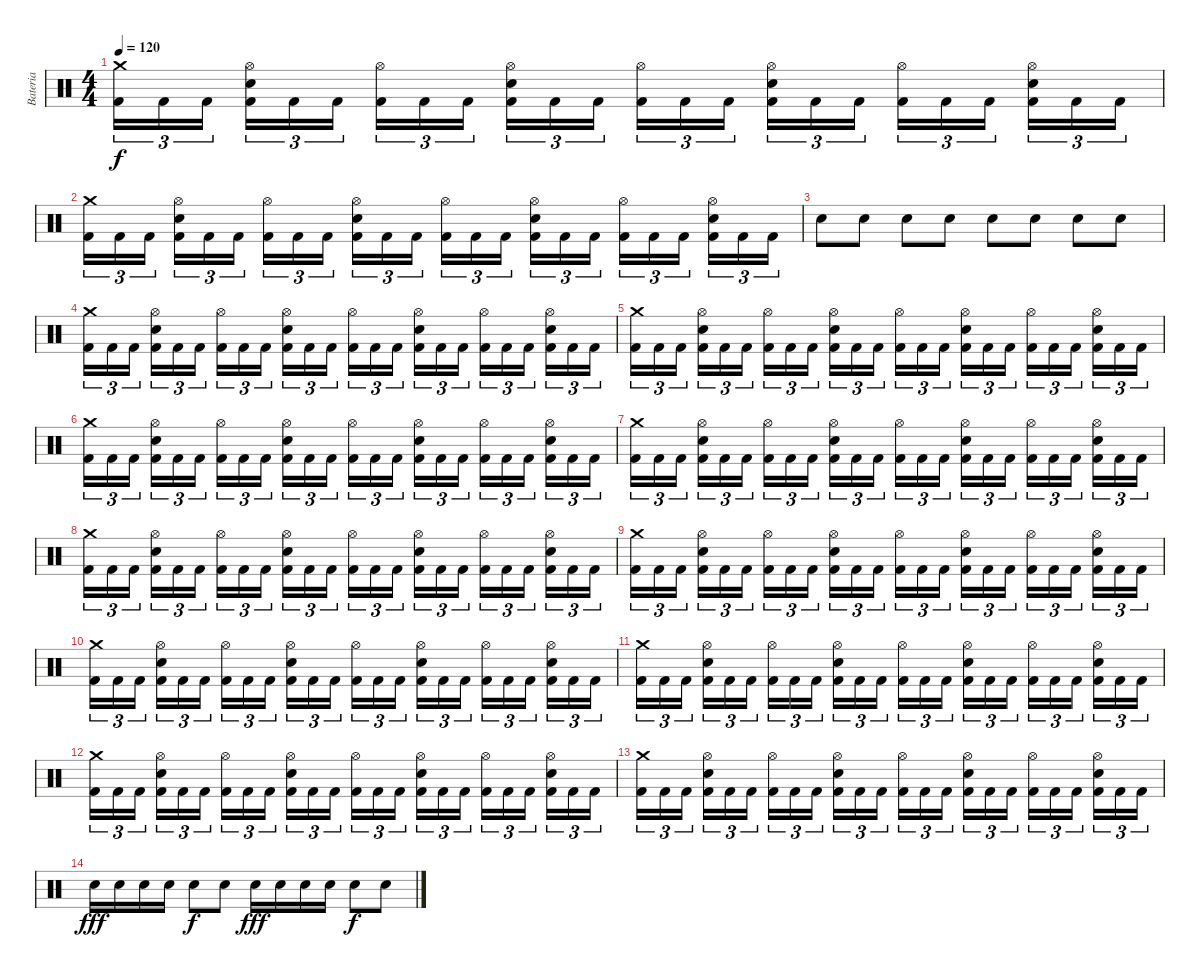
\track ("Bateria" "Bateria") {instrument percussion}
\staff {score}
\articulation defaults
\ts (4 4)
\tempo 120
\clef neutral
\ks c
("Kick (hit) 2" "Crash medium (hit)").16{tu (3 2) dy f} "Kick (hit) 2".16{tu (3 2)} "Kick (hit) 2".16{tu (3 2)} ("Kick (hit) 2" "Snare (hit) 2" "Hi-Hat (open)").16{tu (3 2)} "Kick (hit) 2".16{tu (3 2)} "Kick (hit) 2".16{tu (3 2)} ("Kick (hit) 2" "Hi-Hat (open)").16{tu (3 2)} "Kick (hit) 2".16{tu (3 2)} "Kick (hit) 2".16{tu (3 2)} ("Kick (hit) 2" "Snare (hit) 2" "Hi-Hat (open)").16{tu (3 2)} "Kick (hit) 2".16{tu (3 2)} "Kick (hit) 2".16{tu (3 2)} ("Kick (hit) 2" "Hi-Hat (open)").16{tu (3 2)} "Kick (hit) 2".16{tu (3 2)} "Kick (hit) 2".16{tu (3 2)} ("Kick (hit) 2" "Snare (hit) 2" "Hi-Hat (open)").16{tu (3 2)} "Kick (hit) 2".16{tu (3 2)} "Kick (hit) 2".16{tu (3 2)} ("Kick (hit) 2" "Hi-Hat (open)").16{tu (3 2)} "Kick (hit) 2".16{tu (3 2)} "Kick (hit) 2".16{tu (3 2)} ("Kick (hit) 2" "Snare (hit) 2" "Hi-Hat (open)").16{tu (3 2)} "Kick (hit) 2".16{tu (3 2)} "Kick (hit) 2".16{tu (3 2)} |
("Kick (hit) 2" "Crash medium (hit)").16{tu (3 2)} "Kick (hit) 2".16{tu (3 2)} "Kick (hit) 2".16{tu (3 2)} ("Kick (hit) 2" "Snare (hit) 2" "Hi-Hat (open)").16{tu (3 2)} "Kick (hit) 2".16{tu (3 2)} "Kick (hit) 2".16{tu (3 2)} ("Kick (hit) 2" "Hi-Hat (open)").16{tu (3 2)} "Kick (hit) 2".16{tu (3 2)} "Kick (hit) 2".16{tu (3 2)} ("Kick (hit) 2" "Snare (hit) 2" "Hi-Hat (open)").16{tu (3 2)} "Kick (hit) 2".16{tu (3 2)} "Kick (hit) 2".16{tu (3 2)} ("Kick (hit) 2" "Hi-Hat (open)").16{tu (3 2)} "Kick (hit) 2".16{tu (3 2)} "Kick (hit) 2".16{tu (3 2)} ("Kick (hit) 2" "Snare (hit) 2" "Hi-Hat (open)").16{tu (3 2)} "Kick (hit) 2".16{tu (3 2)} "Kick (hit) 2".16{tu (3 2)} ("Kick (hit) 2" "Hi-Hat (open)").16{tu (3 2)} "Kick (hit) 2".16{tu (3 2)} "Kick (hit) 2".16{tu (3 2)} ("Kick (hit) 2" "Snare (hit) 2" "Hi-Hat (open)").16{tu (3 2)} "Kick (hit) 2".16{tu (3 2)} "Kick (hit) 2".16{tu (3 2)} |
"Electric Snare (hit)".8{volume 14} "Electric Snare (hit)".8 "Electric Snare (hit)".8 "Electric Snare (hit)".8 "Electric Snare (hit)".8 "Electric Snare (hit)".8 "Electric Snare (hit)".8 "Electric Snare (hit)".8 |
("Kick (hit) 2" "Crash medium (hit)").16{tu (3 2)} "Kick (hit) 2".16{tu (3 2)} "Kick (hit) 2".16{tu (3 2)} ("Kick (hit) 2" "Snare (hit) 2" "Hi-Hat (open)").16{tu (3 2)} "Kick (hit) 2".16{tu (3 2)} "Kick (hit) 2".16{tu (3 2)} ("Kick (hit) 2" "Hi-Hat (open)").16{tu (3 2)} "Kick (hit) 2".16{tu (3 2)} "Kick (hit) 2".16{tu (3 2)} ("Kick (hit) 2" "Snare (hit) 2" "Hi-Hat (open)").16{tu (3 2)} "Kick (hit) 2".16{tu (3 2)} "Kick (hit) 2".16{tu (3 2)} ("Kick (hit) 2" "Hi-Hat (open)").16{tu (3 2)} "Kick (hit) 2".16{tu (3 2)} "Kick (hit) 2".16{tu (3 2)} ("Kick (hit) 2" "Snare (hit) 2" "Hi-Hat (open)").16{tu (3 2)} "Kick (hit) 2".16{tu (3 2)} "Kick (hit) 2".16{tu (3 2)} ("Kick (hit) 2" "Hi-Hat (open)").16{tu (3 2)} "Kick (hit) 2".16{tu (3 2)} "Kick (hit) 2".16{tu (3 2)} ("Kick (hit) 2" "Snare (hit) 2" "Hi-Hat (open)").16{tu (3 2)} "Kick (hit) 2".16{tu (3 2)} "Kick (hit) 2".16{tu (3 2)} |
("Kick (hit) 2" "Crash medium (hit)").16{tu (3 2)} "Kick (hit) 2".16{tu (3 2)} "Kick (hit) 2".16{tu (3 2)} ("Kick (hit) 2" "Snare (hit) 2" "Hi-Hat (open)").16{tu (3 2)} "Kick (hit) 2".16{tu (3 2)} "Kick (hit) 2".16{tu (3 2)} ("Kick (hit) 2" "Hi-Hat (open)").16{tu (3 2)} "Kick (hit) 2".16{tu (3 2)} "Kick (hit) 2".16{tu (3 2)} ("Kick (hit) 2" "Snare (hit) 2" "Hi-Hat (open)").16{tu (3 2)} "Kick (hit) 2".16{tu (3 2)} "Kick (hit) 2".16{tu (3 2)} ("Kick (hit) 2" "Hi-Hat (open)").16{tu (3 2)} "Kick (hit) 2".16{tu (3 2)} "Kick (hit) 2".16{tu (3 2)} ("Kick (hit) 2" "Snare (hit) 2" "Hi-Hat (open)").16{tu (3 2)} "Kick (hit) 2".16{tu (3 2)} "Kick (hit) 2".16{tu (3 2)} ("Kick (hit) 2" "Hi-Hat (open)").16{tu (3 2)} "Kick (hit) 2".16{tu (3 2)} "Kick (hit) 2".16{tu (3 2)} ("Kick (hit) 2" "Snare (hit) 2" "Hi-Hat (open)").16{tu (3 2)} "Kick (hit) 2".16{tu (3 2)} "Kick (hit) 2".16{tu (3 2)} |
("Kick (hit) 2" "Crash medium (hit)").16{tu (3 2)} "Kick (hit) 2".16{tu (3 2)} "Kick (hit) 2".16{tu (3 2)} ("Kick (hit) 2" "Snare (hit) 2" "Hi-Hat (open)").16{tu (3 2)} "Kick (hit) 2".16{tu (3 2)} "Kick (hit) 2".16{tu (3 2)} ("Kick (hit) 2" "Hi-Hat (open)").16{tu (3 2)} "Kick (hit) 2".16{tu (3 2)} "Kick (hit) 2".16{tu (3 2)} ("Kick (hit) 2" "Snare (hit) 2" "Hi-Hat (open)").16{tu (3 2)} "Kick (hit) 2".16{tu (3 2)} "Kick (hit) 2".16{tu (3 2)} ("Kick (hit) 2" "Hi-Hat (open)").16{tu (3 2)} "Kick (hit) 2".16{tu (3 2)} "Kick (hit) 2".16{tu (3 2)} ("Kick (hit) 2" "Snare (hit) 2" "Hi-Hat (open)").16{tu (3 2)} "Kick (hit) 2".16{tu (3 2)} "Kick (hit) 2".16{tu (3 2)} ("Kick (hit) 2" "Hi-Hat (open)").16{tu (3 2)} "Kick (hit) 2".16{tu (3 2)} "Kick (hit) 2".16{tu (3 2)} ("Kick (hit) 2" "Snare (hit) 2" "Hi-Hat (open)").16{tu (3 2)} "Kick (hit) 2".16{tu (3 2)} "Kick (hit) 2".16{tu (3 2)} |
("Kick (hit) 2" "Crash medium (hit)").16{tu (3 2)} "Kick (hit) 2".16{tu (3 2)} "Kick (hit) 2".16{tu (3 2)} ("Kick (hit) 2" "Snare (hit) 2" "Hi-Hat (open)").16{tu (3 2)} "Kick (hit) 2".16{tu (3 2)} "Kick (hit) 2".16{tu (3 2)} ("Kick (hit) 2" "Hi-Hat (open)").16{tu (3 2)} "Kick (hit) 2".16{tu (3 2)} "Kick (hit) 2".16{tu (3 2)} ("Kick (hit) 2" "Snare (hit) 2" "Hi-Hat (open)").16{tu (3 2)} "Kick (hit) 2".16{tu (3 2)} "Kick (hit) 2".16{tu (3 2)} ("Kick (hit) 2" "Hi-Hat (open)").16{tu (3 2)} "Kick (hit) 2".16{tu (3 2)} "Kick (hit) 2".16{tu (3 2)} ("Kick (hit) 2" "Snare (hit) 2" "Hi-Hat (open)").16{tu (3 2)} "Kick (hit) 2".16{tu (3 2)} "Kick (hit) 2".16{tu (3 2)} ("Kick (hit) 2" "Hi-Hat (open)").16{tu (3 2)} "Kick (hit) 2".16{tu (3 2)} "Kick (hit) 2".16{tu (3 2)} ("Kick (hit) 2" "Snare (hit) 2" "Hi-Hat (open)").16{tu (3 2)} "Kick (hit) 2".16{tu (3 2)} "Kick (hit) 2".16{tu (3 2)} |
("Kick (hit) 2" "Crash medium (hit)").16{tu (3 2)} "Kick (hit) 2".16{tu (3 2)} "Kick (hit) 2".16{tu (3 2)} ("Kick (hit) 2" "Snare (hit) 2" "Hi-Hat (open)").16{tu (3 2)} "Kick (hit) 2".16{tu (3 2)} "Kick (hit) 2".16{tu (3 2)} ("Kick (hit) 2" "Hi-Hat (open)").16{tu (3 2)} "Kick (hit) 2".16{tu (3 2)} "Kick (hit) 2".16{tu (3 2)} ("Kick (hit) 2" "Snare (hit) 2" "Hi-Hat (open)").16{tu (3 2)} "Kick (hit) 2".16{tu (3 2)} "Kick (hit) 2".16{tu (3 2)} ("Kick (hit) 2" "Hi-Hat (open)").16{tu (3 2)} "Kick (hit) 2".16{tu (3 2)} "Kick (hit) 2".16{tu (3 2)} ("Kick (hit) 2" "Snare (hit) 2" "Hi-Hat (open)").16{tu (3 2)} "Kick (hit) 2".16{tu (3 2)} "Kick (hit) 2".16{tu (3 2)} ("Kick (hit) 2" "Hi-Hat (open)").16{tu (3 2)} "Kick (hit) 2".16{tu (3 2)} "Kick (hit) 2".16{tu (3 2)} ("Kick (hit) 2" "Snare (hit) 2" "Hi-Hat (open)").16{tu (3 2)} "Kick (hit) 2".16{tu (3 2)} "Kick (hit) 2".16{tu (3 2)} |
("Kick (hit) 2" "Crash medium (hit)").16{tu (3 2)} "Kick (hit) 2".16{tu (3 2)} "Kick (hit) 2".16{tu (3 2)} ("Kick (hit) 2" "Snare (hit) 2" "Hi-Hat (open)").16{tu (3 2)} "Kick (hit) 2".16{tu (3 2)} "Kick (hit) 2".16{tu (3 2)} ("Kick (hit) 2" "Hi-Hat (open)").16{tu (3 2)} "Kick (hit) 2".16{tu (3 2)} "Kick (hit) 2".16{tu (3 2)} ("Kick (hit) 2" "Snare (hit) 2" "Hi-Hat (open)").16{tu (3 2)} "Kick (hit) 2".16{tu (3 2)} "Kick (hit) 2".16{tu (3 2)} ("Kick (hit) 2" "Hi-Hat (open)").16{tu (3 2)} "Kick (hit) 2".16{tu (3 2)} "Kick (hit) 2".16{tu (3 2)} ("Kick (hit) 2" "Snare (hit) 2" "Hi-Hat (open)").16{tu (3 2)} "Kick (hit) 2".16{tu (3 2)} "Kick (hit) 2".16{tu (3 2)} ("Kick (hit) 2" "Hi-Hat (open)").16{tu (3 2)} "Kick (hit) 2".16{tu (3 2)} "Kick (hit) 2".16{tu (3 2)} ("Kick (hit) 2" "Snare (hit) 2" "Hi-Hat (open)").16{tu (3 2)} "Kick (hit) 2".16{tu (3 2)} "Kick (hit) 2".16{tu (3 2)} |
("Kick (hit) 2" "Crash medium (hit)").16{tu (3 2)} "Kick (hit) 2".16{tu (3 2)} "Kick (hit) 2".16{tu (3 2)} ("Kick (hit) 2" "Snare (hit) 2" "Hi-Hat (open)").16{tu (3 2)} "Kick (hit) 2".16{tu (3 2)} "Kick (hit) 2".16{tu (3 2)} ("Kick (hit) 2" "Hi-Hat (open)").16{tu (3 2)} "Kick (hit) 2".16{tu (3 2)} "Kick (hit) 2".16{tu (3 2)} ("Kick (hit) 2" "Snare (hit) 2" "Hi-Hat (open)").16{tu (3 2)} "Kick (hit) 2".16{tu (3 2)} "Kick (hit) 2".16{tu (3 2)} ("Kick (hit) 2" "Hi-Hat (open)").16{tu (3 2)} "Kick (hit) 2".16{tu (3 2)} "Kick (hit) 2".16{tu (3 2)} ("Kick (hit) 2" "Snare (hit) 2" "Hi-Hat (open)").16{tu (3 2)} "Kick (hit) 2".16{tu (3 2)} "Kick (hit) 2".16{tu (3 2)} ("Kick (hit) 2" "Hi-Hat (open)").16{tu (3 2)} "Kick (hit) 2".16{tu (3 2)} "Kick (hit) 2".16{tu (3 2)} ("Kick (hit) 2" "Snare (hit) 2" "Hi-Hat (open)").16{tu (3 2)} "Kick (hit) 2".16{tu (3 2)} "Kick (hit) 2".16{tu (3 2)} |
("Kick (hit) 2" "Crash medium (hit)").16{tu (3 2)} "Kick (hit) 2".16{tu (3 2)} "Kick (hit) 2".16{tu (3 2)} ("Kick (hit) 2" "Snare (hit) 2" "Hi-Hat (open)").16{tu (3 2)} "Kick (hit) 2".16{tu (3 2)} "Kick (hit) 2".16{tu (3 2)} ("Kick (hit) 2" "Hi-Hat (open)").16{tu (3 2)} "Kick (hit) 2".16{tu (3 2)} "Kick (hit) 2".16{tu (3 2)} ("Kick (hit) 2" "Snare (hit) 2" "Hi-Hat (open)").16{tu (3 2)} "Kick (hit) 2".16{tu (3 2)} "Kick (hit) 2".16{tu (3 2)} ("Kick (hit) 2" "Hi-Hat (open)").16{tu (3 2)} "Kick (hit) 2".16{tu (3 2)} "Kick (hit) 2".16{tu (3 2)} ("Kick (hit) 2" "Snare (hit) 2" "Hi-Hat (open)").16{tu (3 2)} "Kick (hit) 2".16{tu (3 2)} "Kick (hit) 2".16{tu (3 2)} ("Kick (hit) 2" "Hi-Hat (open)").16{tu (3 2)} "Kick (hit) 2".16{tu (3 2)} "Kick (hit) 2".16{tu (3 2)} ("Kick (hit) 2" "Snare (hit) 2" "Hi-Hat (open)").16{tu (3 2)} "Kick (hit) 2".16{tu (3 2)} "Kick (hit) 2".16{tu (3 2)} |
("Kick (hit) 2" "Crash medium (hit)").16{tu (3 2)} "Kick (hit) 2".16{tu (3 2)} "Kick (hit) 2".16{tu (3 2)} ("Kick (hit) 2" "Snare (hit) 2" "Hi-Hat (open)").16{tu (3 2)} "Kick (hit) 2".16{tu (3 2)} "Kick (hit) 2".16{tu (3 2)} ("Kick (hit) 2" "Hi-Hat (open)").16{tu (3 2)} "Kick (hit) 2".16{tu (3 2)} "Kick (hit) 2".16{tu (3 2)} ("Kick (hit) 2" "Snare (hit) 2" "Hi-Hat (open)").16{tu (3 2)} "Kick (hit) 2".16{tu (3 2)} "Kick (hit) 2".16{tu (3 2)} ("Kick (hit) 2" "Hi-Hat (open)").16{tu (3 2)} "Kick (hit) 2".16{tu (3 2)} "Kick (hit) 2".16{tu (3 2)} ("Kick (hit) 2" "Snare (hit) 2" "Hi-Hat (open)").16{tu (3 2)} "Kick (hit) 2".16{tu (3 2)} "Kick (hit) 2".16{tu (3 2)} ("Kick (hit) 2" "Hi-Hat (open)").16{tu (3 2)} "Kick (hit) 2".16{tu (3 2)} "Kick (hit) 2".16{tu (3 2)} ("Kick (hit) 2" "Snare (hit) 2" "Hi-Hat (open)").16{tu (3 2)} "Kick (hit) 2".16{tu (3 2)} "Kick (hit) 2".16{tu (3 2)} |
("Kick (hit) 2" "Crash medium (hit)").16{tu (3 2)} "Kick (hit) 2".16{tu (3 2)} "Kick (hit) 2".16{tu (3 2)} ("Kick (hit) 2" "Snare (hit) 2" "Hi-Hat (open)").16{tu (3 2)} "Kick (hit) 2".16{tu (3 2)} "Kick (hit) 2".16{tu (3 2)} ("Kick (hit) 2" "Hi-Hat (open)").16{tu (3 2)} "Kick (hit) 2".16{tu (3 2)} "Kick (hit) 2".16{tu (3 2)} ("Kick (hit) 2" "Snare (hit) 2" "Hi-Hat (open)").16{tu (3 2)} "Kick (hit) 2".16{tu (3 2)} "Kick (hit) 2".16{tu (3 2)} ("Kick (hit) 2" "Hi-Hat (open)").16{tu (3 2)} "Kick (hit) 2".16{tu (3 2)} "Kick (hit) 2".16{tu (3 2)} ("Kick (hit) 2" "Snare (hit) 2" "Hi-Hat (open)").16{tu (3 2)} "Kick (hit) 2".16{tu (3 2)} "Kick (hit) 2".16{tu (3 2)} ("Kick (hit) 2" "Hi-Hat (open)").16{tu (3 2)} "Kick (hit) 2".16{tu (3 2)} "Kick (hit) 2".16{tu (3 2)} ("Kick (hit) 2" "Snare (hit) 2" "Hi-Hat (open)").16{tu (3 2)} "Kick (hit) 2".16{tu (3 2)} "Kick (hit) 2".16{tu (3 2)} |
"Electric Snare (hit)".16{dy fff} "Electric Snare (hit)".16 "Electric Snare (hit)".16 "Electric Snare (hit)".16 "Electric Snare (hit)".8{dy f} "Electric Snare (hit)".8 "Electric Snare (hit)".16{dy fff} "Electric Snare (hit)".16 "Electric Snare (hit)".16 "Electric Snare (hit)".16 "Electric Snare (hit)".8{dy f} "Electric Snare (hit)".8
